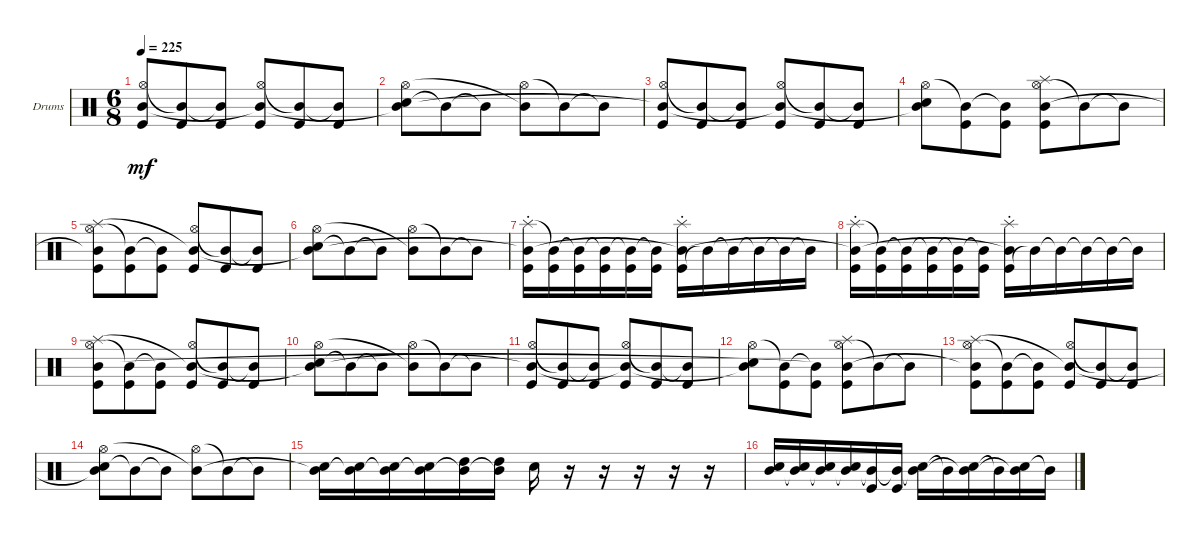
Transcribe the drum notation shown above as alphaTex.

\bracketExtendMode groupsimilarinstruments
\firstSystemTrackNameOrientation horizontal
\otherSystemsTrackNameOrientation horizontal
\track ("Drumkit" "Drums") {solo instrument percussion}
\staff {score}
\articulation defaults
\ts (6 8)
\tempo 225
\clef neutral
\ks c
("Kick (hit)" "Hi-Hat (open)" "Mid Tom (hit)"{t}).8{dy mf} ("Kick (hit)" "Mid Tom (hit)"{t}).8 ("Kick (hit)" "Mid Tom (hit)"{t}).8 ("Kick (hit)" "Hi-Hat (open)" "Mid Tom (hit)"{t}).8 ("Kick (hit)" "Mid Tom (hit)"{t}).8 ("Kick (hit)" "Mid Tom (hit)"{t}).8 |
("Snare (hit) 2" "Hi-Hat (open)" "Mid Tom (hit)"{t}).8 "Mid Tom (hit)"{t}.8 "Mid Tom (hit)"{t}.8 ("Hi-Hat (open)" "Mid Tom (hit)"{t}).8 "Mid Tom (hit)"{t}.8 "Mid Tom (hit)"{t}.8 |
("Kick (hit)" "Hi-Hat (open)" "Mid Tom (hit)"{t}).8 ("Kick (hit)" "Mid Tom (hit)"{t}).8 ("Kick (hit)" "Mid Tom (hit)"{t}).8 ("Kick (hit)" "Hi-Hat (open)" "Mid Tom (hit)"{t}).8 ("Kick (hit)" "Mid Tom (hit)"{t}).8 ("Kick (hit)" "Mid Tom (hit)"{t}).8 |
("Snare (hit) 2" "Hi-Hat (open)" "Mid Tom (hit)"{t}).8 ("Kick (hit)" "Mid Tom (hit)"{t}).8 ("Kick (hit)" "Mid Tom (hit)"{t}).8 ("Hi-Hat (open)" "Kick (hit)" "Splash (hit)" "Mid Tom (hit)").8 "Mid Tom (hit)"{t}.8 "Mid Tom (hit)"{t}.8 |
("Kick (hit)" "Hi-Hat (open)" "Splash (hit)" "Mid Tom (hit)"{t}).8 ("Kick (hit)" "Mid Tom (hit)"{t}).8 ("Kick (hit)" "Mid Tom (hit)"{t}).8 ("Kick (hit)" "Hi-Hat (open)" "Mid Tom (hit)"{t}).8 ("Kick (hit)" "Mid Tom (hit)"{t}).8 ("Kick (hit)" "Mid Tom (hit)"{t}).8 |
("Snare (hit) 2" "Hi-Hat (open)" "Mid Tom (hit)"{t}).8 "Mid Tom (hit)"{t}.8 "Mid Tom (hit)"{t}.8 ("Hi-Hat (open)" "Mid Tom (hit)"{t}).8 "Mid Tom (hit)"{t}.8 "Mid Tom (hit)"{t}.8 |
("Kick (hit)" "Splash (hit)"{st} "Mid Tom (hit)"{t}).16 ("Kick (hit)" "Mid Tom (hit)"{t}).16 ("Kick (hit)" "Mid Tom (hit)"{t}).16 ("Kick (hit)" "Mid Tom (hit)"{t}).16 ("Kick (hit)" "Mid Tom (hit)"{t}).16 ("Kick (hit)" "Mid Tom (hit)"{t}).16 ("Kick (hit)" "Splash (hit)"{st} "Mid Tom (hit)"{t}).16 "Mid Tom (hit)"{t}.16 "Mid Tom (hit)"{t}.16 "Mid Tom (hit)"{t}.16 "Mid Tom (hit)"{t}.16 "Mid Tom (hit)"{t}.16 |
("Kick (hit)" "Splash (hit)"{st} "Mid Tom (hit)"{t}).16 ("Kick (hit)" "Mid Tom (hit)"{t}).16 ("Kick (hit)" "Mid Tom (hit)"{t}).16 ("Kick (hit)" "Mid Tom (hit)"{t}).16 ("Kick (hit)" "Mid Tom (hit)"{t}).16 ("Kick (hit)" "Mid Tom (hit)"{t}).16 ("Kick (hit)" "Splash (hit)"{st} "Mid Tom (hit)"{t}).16 "Mid Tom (hit)"{t}.16 "Mid Tom (hit)"{t}.16 "Mid Tom (hit)"{t}.16 "Mid Tom (hit)"{t}.16 "Mid Tom (hit)"{t}.16 |
("Kick (hit)" "Hi-Hat (open)" "Splash (hit)" "Mid Tom (hit)").8 ("Kick (hit)" "Mid Tom (hit)"{t}).8 ("Kick (hit)" "Mid Tom (hit)"{t}).8 ("Kick (hit)" "Hi-Hat (open)" "Mid Tom (hit)"{t}).8 ("Kick (hit)" "Mid Tom (hit)"{t}).8 ("Kick (hit)" "Mid Tom (hit)"{t}).8 |
("Snare (hit) 2" "Hi-Hat (open)" "Mid Tom (hit)"{t}).8 "Mid Tom (hit)"{t}.8 "Mid Tom (hit)"{t}.8 ("Hi-Hat (open)" "Mid Tom (hit)"{t}).8 "Mid Tom (hit)"{t}.8 "Mid Tom (hit)"{t}.8 |
("Kick (hit)" "Hi-Hat (open)" "Mid Tom (hit)"{t}).8 ("Kick (hit)" "Mid Tom (hit)"{t}).8 ("Kick (hit)" "Mid Tom (hit)"{t}).8 ("Kick (hit)" "Hi-Hat (open)" "Mid Tom (hit)"{t}).8 ("Kick (hit)" "Mid Tom (hit)"{t}).8 ("Kick (hit)" "Mid Tom (hit)"{t}).8 |
("Snare (hit) 2" "Hi-Hat (open)" "Mid Tom (hit)"{t}).8 ("Kick (hit)" "Mid Tom (hit)"{t}).8 ("Kick (hit)" "Mid Tom (hit)"{t}).8 ("Hi-Hat (open)" "Kick (hit)" "Splash (hit)" "Mid Tom (hit)"{t}).8 "Mid Tom (hit)"{t}.8 "Mid Tom (hit)"{t}.8 |
("Kick (hit)" "Hi-Hat (open)" "Splash (hit)" "Mid Tom (hit)"{t}).8 ("Kick (hit)" "Mid Tom (hit)"{t}).8 ("Kick (hit)" "Mid Tom (hit)"{t}).8 ("Kick (hit)" "Hi-Hat (open)" "Mid Tom (hit)"{t}).8 ("Kick (hit)" "Mid Tom (hit)"{t}).8 ("Kick (hit)" "Mid Tom (hit)"{t}).8 |
("Snare (hit) 2" "Hi-Hat (open)" "Mid Tom (hit)"{t}).8 "Mid Tom (hit)"{t}.8 "Mid Tom (hit)"{t}.8 ("Hi-Hat (open)" "Mid Tom (hit)"{t}).8 "Mid Tom (hit)"{t}.8 "Mid Tom (hit)"{t}.8 |
("Snare (hit) 2" "Mid Tom (hit)"{t}).16 ("Snare (hit) 2" "Mid Tom (hit)"{t}).16 ("Snare (hit) 2" "Mid Tom (hit)"{t}).16 ("Snare (hit) 2" "Mid Tom (hit)"{t}).16 ("High Tom (hit)" "Mid Tom (hit)"{t}).16 ("High Tom (hit)" "Mid Tom (hit)"{t}).16 "Snare (hit) 2".16 r.16 r.16 r.16 r.16 r.16 |
("Snare (hit) 2" "Mid Tom (hit)").16 ("Snare (hit) 2" "Mid Tom (hit)"{t}).16 ("Snare (hit) 2" "Mid Tom (hit)"{t}).16 ("Snare (hit) 2" "Mid Tom (hit)"{t}).16 ("Kick (hit)" "Mid Tom (hit)"{t}).16 ("Kick (hit)" "Mid Tom (hit)"{t}).16 ("Snare (hit) 2" "Mid Tom (hit)"{t}).16 "Mid Tom (hit)"{t}.16 ("Snare (hit) 2" "Mid Tom (hit)"{t}).16 "Mid Tom (hit)"{t}.16 ("Snare (hit) 2" "Mid Tom (hit)"{t}).16 "Mid Tom (hit)"{t}.16
